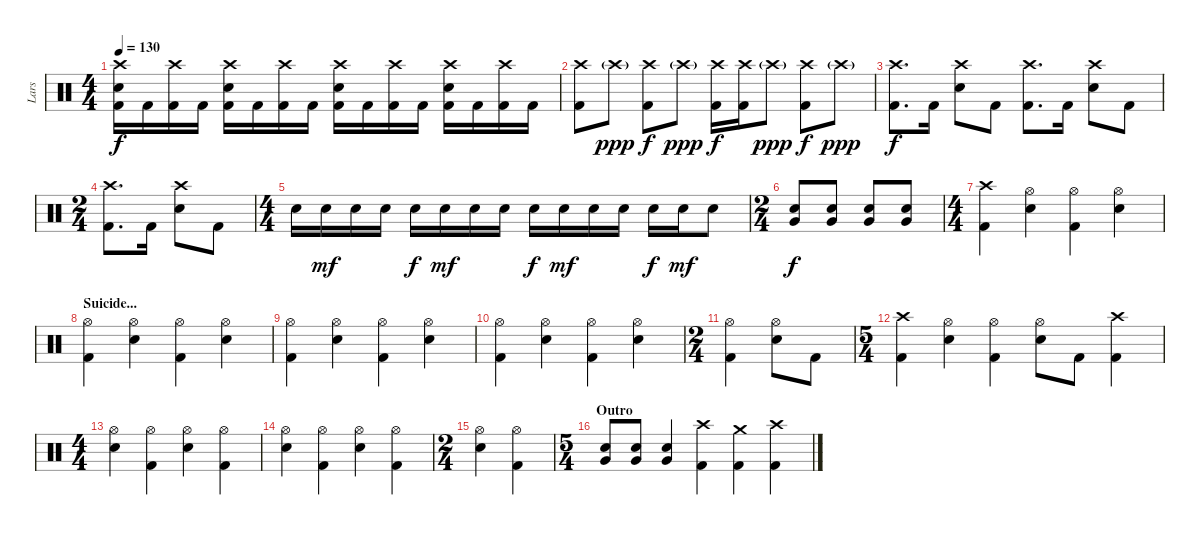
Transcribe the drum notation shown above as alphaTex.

\track ("Lars" "Lars") {instrument percussion}
\staff {score}
\articulation defaults
\ts (4 4)
\tempo 130
\clef neutral
\ks c
("Kick (hit) 2" "Electric Snare (hit)" "Crash high (hit)").16{dy f} "Kick (hit) 2".16 ("Kick (hit) 2" "Crash high (hit)").16 "Kick (hit) 2".16 ("Kick (hit) 2" "Electric Snare (hit)" "Crash high (hit)").16 "Kick (hit) 2".16 ("Kick (hit) 2" "Crash high (hit)").16 "Kick (hit) 2".16 ("Kick (hit) 2" "Electric Snare (hit)" "Crash high (hit)").16 "Kick (hit) 2".16 ("Kick (hit) 2" "Crash high (hit)").16 "Kick (hit) 2".16 ("Kick (hit) 2" "Electric Snare (hit)" "Crash high (hit)").16 "Kick (hit) 2".16 ("Kick (hit) 2" "Crash high (hit)").16 "Kick (hit) 2".16 |
("Kick (hit) 2" "Crash high (hit)").8 "Crash high (hit)"{g}.8{dy ppp} ("Kick (hit) 2" "Crash high (hit)").8{dy f} "Crash high (hit)"{g}.8{dy ppp} ("Kick (hit) 2" "Crash high (hit)").16{dy f} ("Kick (hit) 2" "Crash high (hit)").16 "Crash high (hit)"{g}.8{dy ppp} ("Kick (hit) 2" "Crash high (hit)").8{dy f} "Crash high (hit)"{g}.8{dy ppp} |
\section ("" "")
("Kick (hit) 2" "Crash high (hit)").8{d dy f} "Kick (hit) 2".16 ("Electric Snare (hit)" "Crash high (hit)").8 "Kick (hit) 2".8 ("Kick (hit) 2" "Crash high (hit)").8{d} "Kick (hit) 2".16 ("Electric Snare (hit)" "Crash high (hit)").8 "Kick (hit) 2".8 |
\ts (2 4)
("Kick (hit) 2" "Crash high (hit)").8{d} "Kick (hit) 2".16 ("Electric Snare (hit)" "Crash high (hit)").8 "Kick (hit) 2".8 |
\ts (4 4)
\section ("" "")
"Electric Snare (hit)".16 "Electric Snare (hit)".16{dy mf} "Electric Snare (hit)".16 "Electric Snare (hit)".16 "Electric Snare (hit)".16{dy f} "Electric Snare (hit)".16{dy mf} "Electric Snare (hit)".16 "Electric Snare (hit)".16 "Electric Snare (hit)".16{dy f} "Electric Snare (hit)".16{dy mf} "Electric Snare (hit)".16 "Electric Snare (hit)".16 "Electric Snare (hit)".16{dy f} "Electric Snare (hit)".16{dy mf} "Electric Snare (hit)".8 |
\ts (2 4)
("Electric Snare (hit)" "Very Low Tom (hit)").8{bu 120 dy f} ("Electric Snare (hit)" "Very Low Tom (hit)").8{bu 120} ("Electric Snare (hit)" "Very Low Tom (hit)").8{bu 120} ("Electric Snare (hit)" "Very Low Tom (hit)").8{bu 120} |
\ts (4 4)
("Kick (hit) 2" "Crash high (hit)").4 ("Electric Snare (hit)" "Hi-Hat (open)").4 ("Kick (hit) 2" "Hi-Hat (open)").4 ("Electric Snare (hit)" "Hi-Hat (open)").4 |
\section ("" "Suicide...")
("Kick (hit) 2" "Hi-Hat (open)").4 ("Electric Snare (hit)" "Hi-Hat (open)").4 ("Kick (hit) 2" "Hi-Hat (open)").4 ("Electric Snare (hit)" "Hi-Hat (open)").4 |
("Kick (hit) 2" "Hi-Hat (open)").4 ("Electric Snare (hit)" "Hi-Hat (open)").4 ("Kick (hit) 2" "Hi-Hat (open)").4 ("Electric Snare (hit)" "Hi-Hat (open)").4 |
("Kick (hit) 2" "Hi-Hat (open)").4 ("Electric Snare (hit)" "Hi-Hat (open)").4 ("Kick (hit) 2" "Hi-Hat (open)").4 ("Electric Snare (hit)" "Hi-Hat (open)").4 |
\ts (2 4)
("Kick (hit) 2" "Hi-Hat (open)").4 ("Electric Snare (hit)" "Hi-Hat (open)").8 "Kick (hit) 2".8 |
\ts (5 4)
("Kick (hit) 2" "Crash high (hit)").4 ("Electric Snare (hit)" "Hi-Hat (open)").4 ("Kick (hit) 2" "Hi-Hat (open)").4 ("Electric Snare (hit)" "Hi-Hat (open)").8 "Kick (hit) 2".8 ("Kick (hit) 2" "Crash high (hit)").4 |
\ts (4 4)
("Electric Snare (hit)" "Hi-Hat (open)").4 ("Kick (hit) 2" "Hi-Hat (open)").4 ("Electric Snare (hit)" "Hi-Hat (open)").4 ("Kick (hit) 2" "Hi-Hat (open)").4 |
("Electric Snare (hit)" "Hi-Hat (open)").4 ("Kick (hit) 2" "Hi-Hat (open)").4 ("Electric Snare (hit)" "Hi-Hat (open)").4 ("Kick (hit) 2" "Hi-Hat (open)").4 |
\ts (2 4)
("Electric Snare (hit)" "Hi-Hat (open)").4 ("Kick (hit) 2" "Hi-Hat (open)").4 |
\ts (5 4)
\section ("" "Outro")
("Electric Snare (hit)" "Very Low Tom (hit)").8{bu 120} ("Electric Snare (hit)" "Very Low Tom (hit)").8{bu 120} ("Electric Snare (hit)" "Very Low Tom (hit)").4 ("Kick (hit) 2" "Crash high (hit)").4 ("Kick (hit) 2" "Crash medium (hit)").4 ("Kick (hit) 2" "Crash high (hit)").4
